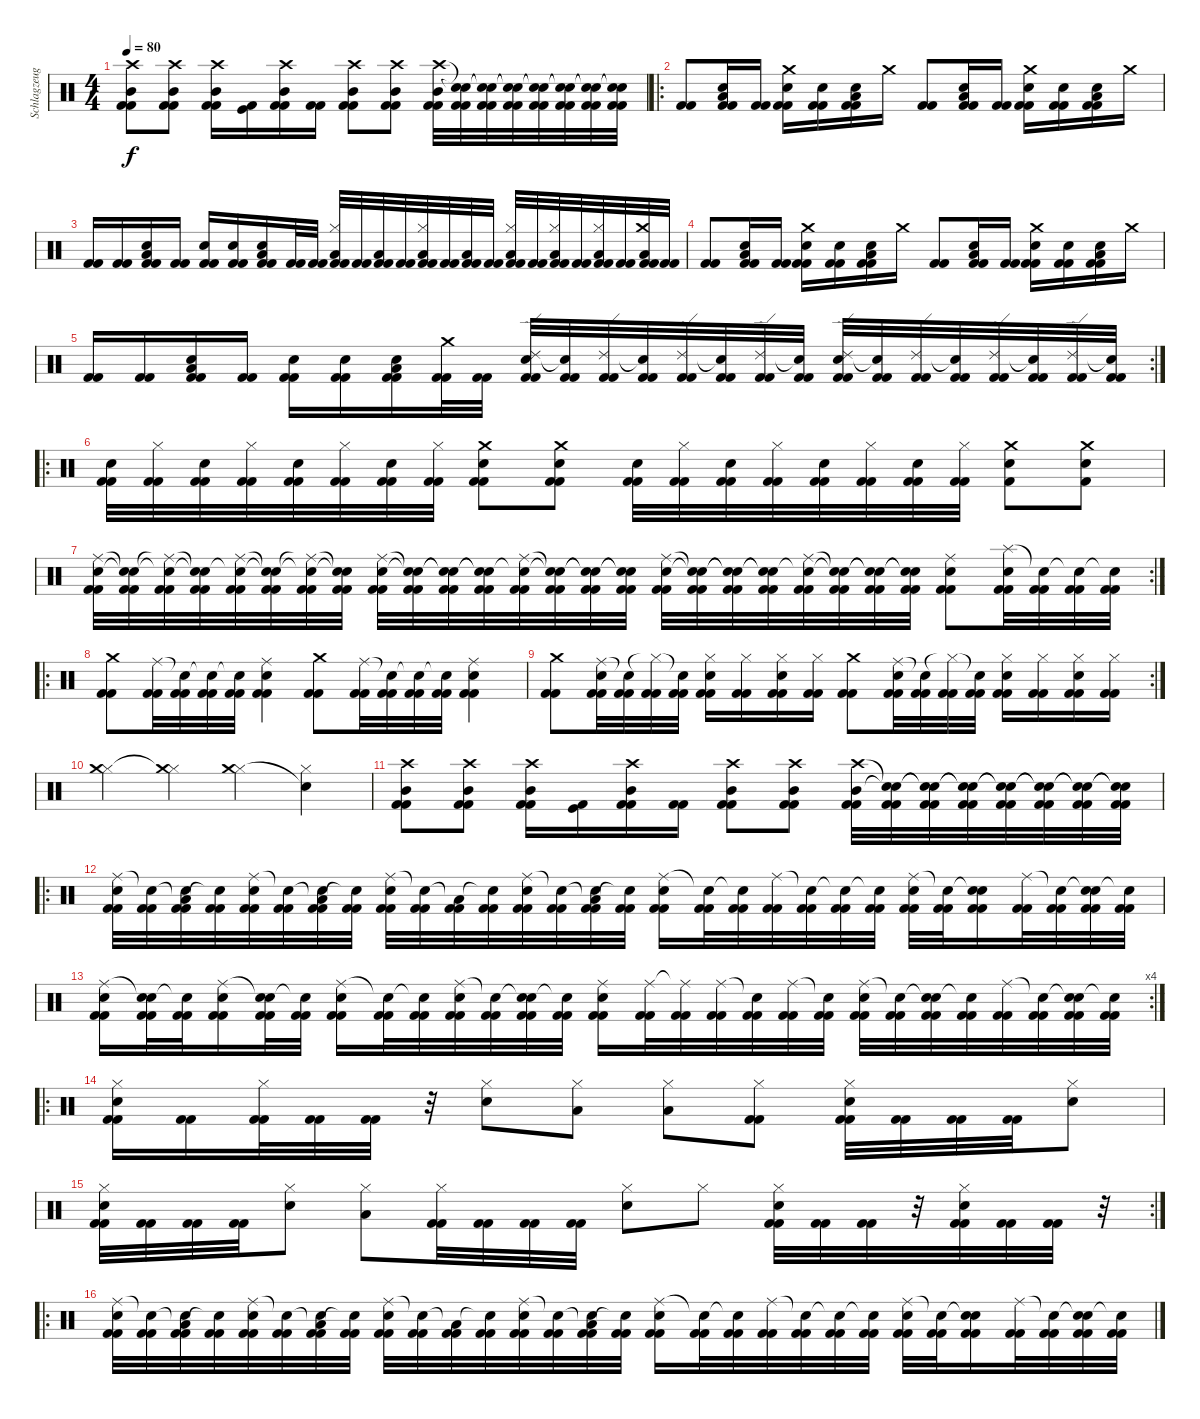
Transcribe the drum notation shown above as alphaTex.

\track ("Schlagzeug" "Schlagzeug") {instrument percussion}
\staff {score}
\articulation defaults
\ts (4 4)
\tempo 80
\clef neutral
\ks c
("Crash high (hit)" "Mid Tom (hit)" "Kick (hit) 2" "Kick (hit) 2").8{dy f} ("Crash high (hit)" "Mid Tom (hit)" "Kick (hit) 2" "Kick (hit) 2").8 ("Crash high (hit)" "Mid Tom (hit)" "Kick (hit) 2" "Kick (hit) 2").16 ("Kick (hit) 2" "Kick (hit)").16 ("Crash high (hit)" "Mid Tom (hit)" "Kick (hit) 2" "Kick (hit) 2").16 ("Kick (hit) 2" "Kick (hit) 2").16 ("Crash high (hit)" "Mid Tom (hit)" "Kick (hit) 2" "Kick (hit) 2").8 ("Crash high (hit)" "Mid Tom (hit)" "Kick (hit) 2" "Kick (hit) 2").8 ("Crash high (hit)" "Mid Tom (hit)" "Kick (hit) 2" "Kick (hit) 2").32 ("Snare (hit)"{t} "Snare (hit)"{t} "Kick (hit) 2" "Kick (hit) 2").32 ("Snare (hit)"{t} "Snare (hit)"{t} "Kick (hit) 2" "Kick (hit) 2").32 ("Snare (hit)"{t} "Snare (hit)"{t} "Kick (hit) 2" "Kick (hit) 2").32 ("Snare (hit)"{t} "Snare (hit)"{t} "Kick (hit) 2" "Kick (hit) 2").32 ("Snare (hit)"{t} "Snare (hit)"{t} "Kick (hit) 2" "Kick (hit) 2").32 ("Snare (hit)"{t} "Snare (hit)"{t} "Kick (hit) 2" "Kick (hit) 2").32 ("Snare (hit)"{t} "Snare (hit)"{t} "Kick (hit) 2" "Kick (hit) 2").32 |
\ro
("Kick (hit) 2" "Kick (hit) 2").8 ("Snare (hit) 2" "Low Tom (hit)" "Kick (hit) 2" "Kick (hit) 2").16 ("Kick (hit) 2" "Kick (hit) 2").16 ("Crash medium (hit)" "Snare (hit) 2" "Kick (hit) 2" "Kick (hit) 2").16 ("Snare (hit) 2" "Kick (hit) 2" "Kick (hit) 2").16 ("Snare (hit) 2" "Low Tom (hit)" "Kick (hit) 2" "Kick (hit) 2").16 "Crash medium (hit)".16 ("Kick (hit) 2" "Kick (hit) 2").8 ("Snare (hit) 2" "Low Tom (hit)" "Kick (hit) 2" "Kick (hit) 2").16 ("Kick (hit) 2" "Kick (hit) 2").16 ("Crash medium (hit)" "Snare (hit) 2" "Kick (hit) 2" "Kick (hit) 2").16 ("Snare (hit) 2" "Kick (hit) 2" "Kick (hit) 2").16 ("Snare (hit) 2" "Low Tom (hit)" "Kick (hit) 2" "Kick (hit) 2").16 "Crash medium (hit)".16 |
("Kick (hit) 2" "Kick (hit) 2").16 ("Kick (hit) 2" "Kick (hit) 2").16 ("Snare (hit) 2" "Low Tom (hit)" "Kick (hit) 2" "Kick (hit) 2").16 ("Kick (hit) 2" "Kick (hit) 2").16 ("Snare (hit) 2" "Kick (hit) 2" "Kick (hit) 2").16 ("Snare (hit) 2" "Kick (hit) 2" "Kick (hit) 2").16 ("Snare (hit) 2" "Low Tom (hit)" "Kick (hit) 2" "Kick (hit) 2").16 ("Kick (hit) 2" "Kick (hit) 2").32 ("Kick (hit) 2" "Kick (hit) 2").32 ("Hi-Hat (closed)" "Low Floor Tom (hit)" "Kick (hit) 2" "Kick (hit) 2").32 ("Kick (hit) 2" "Kick (hit) 2").32 ("Low Floor Tom (hit)" "Kick (hit) 2" "Kick (hit) 2").32 ("Kick (hit) 2" "Kick (hit) 2").32 ("Hi-Hat (closed)" "Low Floor Tom (hit)" "Kick (hit) 2" "Kick (hit) 2").32 ("Kick (hit) 2" "Kick (hit) 2").32 ("Low Floor Tom (hit)" "Kick (hit) 2" "Kick (hit) 2").32 ("Kick (hit) 2" "Kick (hit) 2").32 ("Hi-Hat (closed)" "Low Floor Tom (hit)" "Kick (hit) 2" "Kick (hit) 2").32 ("Kick (hit) 2" "Kick (hit) 2").32 ("Hi-Hat (closed)" "Low Floor Tom (hit)" "Kick (hit) 2" "Kick (hit) 2").32 ("Kick (hit) 2" "Kick (hit) 2").32 ("Hi-Hat (closed)" "Low Floor Tom (hit)" "Kick (hit) 2" "Kick (hit) 2").32 ("Kick (hit) 2" "Kick (hit) 2").32 ("Crash medium (hit)" "Low Floor Tom (hit)" "Kick (hit) 2" "Kick (hit) 2").32 ("Kick (hit) 2" "Kick (hit) 2").32 |
("Kick (hit) 2" "Kick (hit) 2").8 ("Snare (hit) 2" "Low Tom (hit)" "Kick (hit) 2" "Kick (hit) 2").16 ("Kick (hit) 2" "Kick (hit) 2").16 ("Crash medium (hit)" "Snare (hit) 2" "Kick (hit) 2" "Kick (hit) 2").16 ("Snare (hit) 2" "Kick (hit) 2" "Kick (hit) 2").16 ("Snare (hit) 2" "Low Tom (hit)" "Kick (hit) 2" "Kick (hit) 2").16 "Crash medium (hit)".16 ("Kick (hit) 2" "Kick (hit) 2").8 ("Snare (hit) 2" "Low Tom (hit)" "Kick (hit) 2" "Kick (hit) 2").16 ("Kick (hit) 2" "Kick (hit) 2").16 ("Crash medium (hit)" "Snare (hit) 2" "Kick (hit) 2" "Kick (hit) 2").16 ("Snare (hit) 2" "Kick (hit) 2" "Kick (hit) 2").16 ("Snare (hit) 2" "Low Tom (hit)" "Kick (hit) 2" "Kick (hit) 2").16 "Crash medium (hit)".16 |
\rc 2
("Kick (hit) 2" "Kick (hit) 2").16 ("Kick (hit) 2" "Kick (hit) 2").16 ("Snare (hit) 2" "Low Tom (hit)" "Kick (hit) 2" "Kick (hit) 2").16 ("Kick (hit) 2" "Kick (hit) 2").16 ("Snare (hit) 2" "Kick (hit) 2" "Kick (hit) 2").16 ("Snare (hit) 2" "Kick (hit) 2" "Kick (hit) 2").16 ("Snare (hit) 2" "Low Tom (hit)" "Kick (hit) 2" "Kick (hit) 2").16 ("Crash medium (hit)" "Kick (hit) 2" "Kick (hit) 2").32 ("Kick (hit) 2" "Kick (hit) 2").32 ("Ride (edge) 2" "Snare (hit) 2" "Kick (hit) 2" "Kick (hit) 2").32 ("Snare (hit)"{t} "Kick (hit) 2" "Kick (hit) 2").32 ("Ride (edge) 2" "Kick (hit) 2" "Kick (hit) 2").32 ("Snare (hit)"{t} "Kick (hit) 2" "Kick (hit) 2").32 ("Ride (edge) 2" "Kick (hit) 2" "Kick (hit) 2").32 ("Snare (hit)"{t} "Kick (hit) 2" "Kick (hit) 2").32 ("Ride (edge) 2" "Kick (hit) 2" "Kick (hit) 2").32 ("Snare (hit)"{t} "Kick (hit) 2" "Kick (hit) 2").32 ("Ride (edge) 2" "Snare (hit) 2" "Kick (hit) 2" "Kick (hit) 2").32 ("Snare (hit)"{t} "Kick (hit) 2" "Kick (hit) 2").32 ("Ride (edge) 2" "Kick (hit) 2" "Kick (hit) 2").32 ("Snare (hit)"{t} "Kick (hit) 2" "Kick (hit) 2").32 ("Ride (edge) 2" "Kick (hit) 2" "Kick (hit) 2").32 ("Snare (hit)"{t} "Kick (hit) 2" "Kick (hit) 2").32 ("Ride (edge) 2" "Kick (hit) 2" "Kick (hit) 2").32 ("Snare (hit)"{t} "Kick (hit) 2" "Kick (hit) 2").32 |
\ro
("Snare (hit) 2" "Kick (hit) 2" "Kick (hit) 2").32 ("Hi-Hat (closed)" "Kick (hit) 2" "Kick (hit) 2").32 ("Snare (hit) 2" "Kick (hit) 2" "Kick (hit) 2").32 ("Hi-Hat (closed)" "Kick (hit) 2" "Kick (hit) 2").32 ("Snare (hit) 2" "Kick (hit) 2" "Kick (hit) 2").32 ("Hi-Hat (closed)" "Kick (hit) 2" "Kick (hit) 2").32 ("Snare (hit) 2" "Kick (hit) 2" "Kick (hit) 2").32 ("Hi-Hat (closed)" "Kick (hit) 2" "Kick (hit) 2").32 ("Crash medium (hit)" "Snare (hit) 2" "Kick (hit) 2" "Kick (hit) 2").8 ("Crash medium (hit)" "Snare (hit) 2" "Kick (hit) 2" "Kick (hit) 2").8 ("Snare (hit) 2" "Kick (hit) 2" "Kick (hit) 2").32 ("Hi-Hat (closed)" "Kick (hit) 2" "Kick (hit) 2").32 ("Snare (hit) 2" "Kick (hit) 2" "Kick (hit) 2").32 ("Hi-Hat (closed)" "Kick (hit) 2" "Kick (hit) 2").32 ("Snare (hit) 2" "Kick (hit) 2" "Kick (hit) 2").32 ("Hi-Hat (closed)" "Kick (hit) 2" "Kick (hit) 2").32 ("Snare (hit) 2" "Kick (hit) 2" "Kick (hit) 2").32 ("Hi-Hat (closed)" "Kick (hit) 2" "Kick (hit) 2").32 ("Crash medium (hit)" "Snare (hit) 2" "Kick (hit) 2").8 ("Crash medium (hit)" "Snare (hit) 2" "Kick (hit) 2").8 |
\rc 2
("Ride (middle)" "Snare (hit) 2" "Kick (hit) 2" "Kick (hit) 2").32 ("Snare (hit)"{t} "Snare (hit)"{t} "Kick (hit) 2" "Kick (hit) 2").32 ("Ride (middle)"{t} "Snare (hit)"{t} "Kick (hit) 2" "Kick (hit) 2").32 ("Snare (hit)"{t} "Snare (hit)"{t} "Kick (hit) 2" "Kick (hit) 2").32 ("Ride (middle)" "Snare (hit)"{t} "Kick (hit) 2" "Kick (hit) 2").32 ("Snare (hit)"{t} "Snare (hit)"{t} "Kick (hit) 2" "Kick (hit) 2").32 ("Ride (middle)"{t} "Snare (hit)"{t} "Kick (hit) 2" "Kick (hit) 2").32 ("Snare (hit)"{t} "Snare (hit)"{t} "Kick (hit) 2" "Kick (hit) 2").32 ("Ride (middle)" "Snare (hit) 2" "Kick (hit) 2" "Kick (hit) 2").32 ("Snare (hit)"{t} "Snare (hit)"{t} "Kick (hit) 2" "Kick (hit) 2").32 ("Snare (hit)"{t} "Snare (hit)"{t} "Kick (hit) 2" "Kick (hit) 2").32 ("Snare (hit)"{t} "Snare (hit)"{t} "Kick (hit) 2" "Kick (hit) 2").32 ("Ride (middle)" "Snare (hit)"{t} "Kick (hit) 2" "Kick (hit) 2").32 ("Snare (hit)"{t} "Snare (hit)"{t} "Kick (hit) 2" "Kick (hit) 2").32 ("Snare (hit)"{t} "Snare (hit)"{t} "Kick (hit) 2" "Kick (hit) 2").32 ("Snare (hit)"{t} "Snare (hit)"{t} "Kick (hit) 2" "Kick (hit) 2").32 ("Ride (middle)" "Snare (hit) 2" "Kick (hit) 2" "Kick (hit) 2").32 ("Snare (hit)"{t} "Snare (hit)"{t} "Kick (hit) 2" "Kick (hit) 2").32 ("Snare (hit)"{t} "Snare (hit)"{t} "Kick (hit) 2" "Kick (hit) 2").32 ("Snare (hit)"{t} "Snare (hit)"{t} "Kick (hit) 2" "Kick (hit) 2").32 ("Ride (middle)" "Snare (hit)"{t} "Kick (hit) 2" "Kick (hit) 2").32 ("Snare (hit)"{t} "Snare (hit)"{t} "Kick (hit) 2" "Kick (hit) 2").32 ("Snare (hit)"{t} "Snare (hit)"{t} "Kick (hit) 2" "Kick (hit) 2").32 ("Snare (hit)"{t} "Snare (hit)"{t} "Kick (hit) 2" "Kick (hit) 2").32 ("Ride (middle)" "Snare (hit) 2" "Kick (hit) 2" "Kick (hit) 2").8 ("Splash (hit)" "Snare (hit) 2" "Kick (hit) 2" "Kick (hit) 2").32 ("Snare (hit)"{t} "Kick (hit) 2" "Kick (hit) 2").32 ("Snare (hit)"{t} "Kick (hit) 2" "Kick (hit) 2").32 ("Snare (hit)"{t} "Kick (hit) 2" "Kick (hit) 2").32 |
\ro
("Crash medium (hit)" "Kick (hit) 2" "Kick (hit) 2").8 ("Ride (middle)" "Kick (hit) 2" "Kick (hit) 2").32 ("Snare (hit)"{t} "Kick (hit) 2" "Kick (hit) 2").32 ("Snare (hit)"{t} "Kick (hit) 2" "Kick (hit) 2").32 ("Snare (hit)"{t} "Kick (hit) 2" "Kick (hit) 2").32 ("Ride (middle)" "Snare (hit) 2" "Kick (hit) 2" "Kick (hit) 2").4 ("Crash medium (hit)" "Kick (hit) 2" "Kick (hit) 2").8 ("Ride (middle)" "Kick (hit) 2" "Kick (hit) 2").32 ("Snare (hit)"{t} "Kick (hit) 2" "Kick (hit) 2").32 ("Snare (hit)"{t} "Kick (hit) 2" "Kick (hit) 2").32 ("Snare (hit)"{t} "Kick (hit) 2" "Kick (hit) 2").32 ("Ride (middle)" "Snare (hit) 2" "Kick (hit) 2" "Kick (hit) 2").4 |
\rc 2
("Crash medium (hit)" "Kick (hit) 2" "Kick (hit) 2").8 ("Ride (middle)" "Snare (hit) 2" "Kick (hit) 2" "Kick (hit) 2").32 ("Snare (hit)"{t} "Kick (hit) 2" "Kick (hit) 2").32 ("Hi-Hat (closed)"{t} "Kick (hit) 2" "Kick (hit) 2").32 ("Snare (hit)"{t} "Kick (hit) 2" "Kick (hit) 2").32 ("Hi-Hat (closed)" "Snare (hit) 2" "Kick (hit) 2" "Kick (hit) 2").16 ("Hi-Hat (closed)" "Kick (hit) 2" "Kick (hit) 2").16 ("Hi-Hat (closed)" "Snare (hit) 2" "Kick (hit) 2" "Kick (hit) 2").16 ("Hi-Hat (closed)" "Kick (hit) 2" "Kick (hit) 2").16 ("Crash medium (hit)" "Kick (hit) 2" "Kick (hit) 2").8 ("Ride (middle)" "Snare (hit) 2" "Kick (hit) 2" "Kick (hit) 2").32 ("Snare (hit)"{t} "Kick (hit) 2" "Kick (hit) 2").32 ("Hi-Hat (closed)"{t} "Kick (hit) 2" "Kick (hit) 2").32 ("Snare (hit)"{t} "Kick (hit) 2" "Kick (hit) 2").32 ("Hi-Hat (closed)" "Snare (hit) 2" "Kick (hit) 2" "Kick (hit) 2").16 ("Hi-Hat (closed)" "Kick (hit) 2" "Kick (hit) 2").16 ("Hi-Hat (closed)" "Snare (hit) 2" "Kick (hit) 2" "Kick (hit) 2").16 ("Hi-Hat (closed)" "Kick (hit) 2" "Kick (hit) 2").16 |
("Hi-Hat (closed)" "Crash medium (hit)").4 ("Hi-Hat (closed)" "Crash medium (hit)"{t}).4 ("Hi-Hat (closed)" "Crash medium (hit)").4 ("Hi-Hat (closed)" "Snare (hit)"{t}).4 |
("Crash high (hit)" "Mid Tom (hit)" "Kick (hit) 2" "Kick (hit) 2").8 ("Crash high (hit)" "Mid Tom (hit)" "Kick (hit) 2" "Kick (hit) 2").8 ("Crash high (hit)" "Mid Tom (hit)" "Kick (hit) 2" "Kick (hit) 2").16 ("Kick (hit) 2" "Kick (hit)").16 ("Crash high (hit)" "Mid Tom (hit)" "Kick (hit) 2" "Kick (hit) 2").16 ("Kick (hit) 2" "Kick (hit) 2").16 ("Crash high (hit)" "Mid Tom (hit)" "Kick (hit) 2" "Kick (hit) 2").8 ("Crash high (hit)" "Mid Tom (hit)" "Kick (hit) 2" "Kick (hit) 2").8 ("Crash high (hit)" "Mid Tom (hit)" "Kick (hit) 2" "Kick (hit) 2").32 ("Snare (hit)"{t} "Snare (hit)"{t} "Kick (hit) 2" "Kick (hit) 2").32 ("Snare (hit)"{t} "Snare (hit)"{t} "Kick (hit) 2" "Kick (hit) 2").32 ("Snare (hit)"{t} "Snare (hit)"{t} "Kick (hit) 2" "Kick (hit) 2").32 ("Snare (hit)"{t} "Snare (hit)"{t} "Kick (hit) 2" "Kick (hit) 2").32 ("Snare (hit)"{t} "Snare (hit)"{t} "Kick (hit) 2" "Kick (hit) 2").32 ("Snare (hit)"{t} "Snare (hit)"{t} "Kick (hit) 2" "Kick (hit) 2").32 ("Snare (hit)"{t} "Snare (hit)"{t} "Kick (hit) 2" "Kick (hit) 2").32 |
\ro
("Ride (middle)" "Snare (hit) 2" "Kick (hit) 2" "Kick (hit) 2").32 ("Snare (hit)"{t} "Kick (hit) 2" "Kick (hit) 2").32 ("Low Floor Tom (hit)"{t} "Snare (hit) 2" "Kick (hit) 2" "Kick (hit) 2").32 ("Snare (hit)"{t} "Kick (hit) 2" "Kick (hit) 2").32 ("Ride (middle)" "Snare (hit) 2" "Kick (hit) 2" "Kick (hit) 2").32 ("Snare (hit)"{t} "Kick (hit) 2" "Kick (hit) 2").32 ("Low Floor Tom (hit)"{t} "Snare (hit) 2" "Kick (hit) 2" "Kick (hit) 2").32 ("Snare (hit)"{t} "Kick (hit) 2" "Kick (hit) 2").32 ("Ride (middle)" "Snare (hit) 2" "Kick (hit) 2" "Kick (hit) 2").32 ("Snare (hit)"{t} "Kick (hit) 2" "Kick (hit) 2").32 ("Low Floor Tom (hit)"{t} "Kick (hit) 2" "Kick (hit) 2").32 ("Snare (hit)"{t} "Kick (hit) 2" "Kick (hit) 2").32 ("Ride (middle)" "Snare (hit) 2" "Kick (hit) 2" "Kick (hit) 2").32 ("Snare (hit)"{t} "Kick (hit) 2" "Kick (hit) 2").32 ("Low Floor Tom (hit)"{t} "Snare (hit) 2" "Kick (hit) 2" "Kick (hit) 2").32 ("Snare (hit)"{t} "Kick (hit) 2" "Kick (hit) 2").32 ("Ride (middle)" "Snare (hit) 2" "Kick (hit) 2" "Kick (hit) 2").16 ("Snare (hit)"{t} "Kick (hit) 2" "Kick (hit) 2").32 ("Snare (hit)"{t} "Kick (hit) 2" "Kick (hit) 2").32 ("Ride (middle)" "Kick (hit) 2" "Kick (hit) 2").32 ("Snare (hit)"{t} "Kick (hit) 2" "Kick (hit) 2").32 ("Snare (hit)"{t} "Kick (hit) 2" "Kick (hit) 2").32 ("Snare (hit)"{t} "Kick (hit) 2" "Kick (hit) 2").32 ("Ride (middle)" "Snare (hit) 2" "Kick (hit) 2" "Kick (hit) 2").32 ("Snare (hit)"{t} "Kick (hit) 2" "Kick (hit) 2").32 ("Snare (hit)"{t} "Snare (hit) 2" "Kick (hit) 2" "Kick (hit) 2").16 ("Ride (middle)" "Kick (hit) 2" "Kick (hit) 2").32 ("Snare (hit)"{t} "Kick (hit) 2" "Kick (hit) 2").32 ("Snare (hit)"{t} "Snare (hit) 2" "Kick (hit) 2" "Kick (hit) 2").32 ("Snare (hit)"{t} "Kick (hit) 2" "Kick (hit) 2").32 |
\rc 4
("Ride (middle)" "Snare (hit) 2" "Kick (hit) 2" "Kick (hit) 2").16 ("Snare (hit)"{t} "Snare (hit) 2" "Kick (hit) 2" "Kick (hit) 2").32 ("Snare (hit)"{t} "Kick (hit) 2" "Kick (hit) 2").32 ("Ride (middle)" "Snare (hit) 2" "Kick (hit) 2" "Kick (hit) 2").16 ("Snare (hit)"{t} "Snare (hit) 2" "Kick (hit) 2" "Kick (hit) 2").32 ("Snare (hit)"{t} "Kick (hit) 2" "Kick (hit) 2").32 ("Ride (middle)" "Snare (hit) 2" "Kick (hit) 2" "Kick (hit) 2").16 ("Snare (hit)"{t} "Kick (hit) 2" "Kick (hit) 2").32 ("Snare (hit)"{t} "Kick (hit) 2" "Kick (hit) 2").32 ("Ride (middle)" "Snare (hit) 2" "Kick (hit) 2" "Kick (hit) 2").32 ("Snare (hit)"{t} "Kick (hit) 2" "Kick (hit) 2").32 ("Snare (hit)"{t} "Snare (hit) 2" "Kick (hit) 2" "Kick (hit) 2").32 ("Snare (hit)"{t} "Kick (hit) 2" "Kick (hit) 2").32 ("Ride (middle)" "Snare (hit) 2" "Kick (hit) 2" "Kick (hit) 2").16 ("Ride (middle)" "Kick (hit) 2" "Kick (hit) 2").32 ("Ride (middle)"{t} "Kick (hit) 2" "Kick (hit) 2").32 ("Ride (middle)" "Kick (hit) 2" "Kick (hit) 2").32 ("Snare (hit)"{t} "Kick (hit) 2" "Kick (hit) 2").32 ("Ride (middle)" "Kick (hit) 2" "Kick (hit) 2").32 ("Snare (hit)"{t} "Kick (hit) 2" "Kick (hit) 2").32 ("Ride (middle)" "Snare (hit) 2" "Kick (hit) 2" "Kick (hit) 2").32 ("Snare (hit)"{t} "Kick (hit) 2" "Kick (hit) 2").32 ("Snare (hit)"{t} "Snare (hit) 2" "Kick (hit) 2" "Kick (hit) 2").32 ("Snare (hit)"{t} "Kick (hit) 2" "Kick (hit) 2").32 ("Ride (middle)" "Kick (hit) 2" "Kick (hit) 2").32 ("Snare (hit)"{t} "Kick (hit) 2" "Kick (hit) 2").32 ("Snare (hit)"{t} "Snare (hit) 2" "Kick (hit) 2" "Kick (hit) 2").32 ("Snare (hit)"{t} "Kick (hit) 2" "Kick (hit) 2").32 |
\ro
("Hi-Hat (closed)" "Snare (hit) 2" "Kick (hit) 2" "Kick (hit) 2").16 ("Kick (hit) 2" "Kick (hit) 2").16 ("Hi-Hat (closed)" "Kick (hit) 2" "Kick (hit) 2").32 ("Kick (hit) 2" "Kick (hit) 2").32 ("Kick (hit) 2" "Kick (hit) 2").32 r.32 ("Hi-Hat (closed)" "Snare (hit) 2").8 ("Hi-Hat (closed)" "Low Floor Tom (hit)").8 ("Hi-Hat (closed)" "Low Floor Tom (hit)").8 ("Hi-Hat (closed)" "Kick (hit) 2" "Kick (hit) 2").8 ("Hi-Hat (closed)" "Snare (hit) 2" "Kick (hit) 2" "Kick (hit) 2").32 ("Kick (hit) 2" "Kick (hit) 2").32 ("Kick (hit) 2" "Kick (hit) 2").32 ("Kick (hit) 2" "Kick (hit) 2").32 ("Hi-Hat (closed)" "Snare (hit) 2").8 |
\rc 2
("Hi-Hat (closed)" "Snare (hit) 2" "Kick (hit) 2" "Kick (hit) 2").32 ("Kick (hit) 2" "Kick (hit) 2").32 ("Kick (hit) 2" "Kick (hit) 2").32 ("Kick (hit) 2" "Kick (hit) 2").32 ("Hi-Hat (closed)" "Snare (hit) 2").8 ("Hi-Hat (closed)" "Low Floor Tom (hit)").8 ("Hi-Hat (closed)" "Kick (hit) 2" "Kick (hit) 2").32 ("Kick (hit) 2" "Kick (hit) 2").32 ("Kick (hit) 2" "Kick (hit) 2").32 ("Kick (hit) 2" "Kick (hit) 2").32 ("Hi-Hat (closed)" "Snare (hit) 2").8 "Hi-Hat (closed)".8 ("Hi-Hat (closed)" "Snare (hit) 2" "Kick (hit) 2" "Kick (hit) 2").32 ("Kick (hit) 2" "Kick (hit) 2").32 ("Kick (hit) 2" "Kick (hit) 2").32 r.32 ("Hi-Hat (closed)" "Snare (hit) 2" "Kick (hit) 2" "Kick (hit) 2").32 ("Kick (hit) 2" "Kick (hit) 2").32 ("Kick (hit) 2" "Kick (hit) 2").32 r.32 |
\ro
("Ride (middle)" "Snare (hit) 2" "Kick (hit) 2" "Kick (hit) 2").32 ("Snare (hit)"{t} "Kick (hit) 2" "Kick (hit) 2").32 ("Low Floor Tom (hit)"{t} "Snare (hit) 2" "Kick (hit) 2" "Kick (hit) 2").32 ("Snare (hit)"{t} "Kick (hit) 2" "Kick (hit) 2").32 ("Ride (middle)" "Snare (hit) 2" "Kick (hit) 2" "Kick (hit) 2").32 ("Snare (hit)"{t} "Kick (hit) 2" "Kick (hit) 2").32 ("Low Floor Tom (hit)"{t} "Snare (hit) 2" "Kick (hit) 2" "Kick (hit) 2").32 ("Snare (hit)"{t} "Kick (hit) 2" "Kick (hit) 2").32 ("Ride (middle)" "Snare (hit) 2" "Kick (hit) 2" "Kick (hit) 2").32 ("Snare (hit)"{t} "Kick (hit) 2" "Kick (hit) 2").32 ("Low Floor Tom (hit)"{t} "Kick (hit) 2" "Kick (hit) 2").32 ("Snare (hit)"{t} "Kick (hit) 2" "Kick (hit) 2").32 ("Ride (middle)" "Snare (hit) 2" "Kick (hit) 2" "Kick (hit) 2").32 ("Snare (hit)"{t} "Kick (hit) 2" "Kick (hit) 2").32 ("Low Floor Tom (hit)"{t} "Snare (hit) 2" "Kick (hit) 2" "Kick (hit) 2").32 ("Snare (hit)"{t} "Kick (hit) 2" "Kick (hit) 2").32 ("Ride (middle)" "Snare (hit) 2" "Kick (hit) 2" "Kick (hit) 2").16 ("Snare (hit)"{t} "Kick (hit) 2" "Kick (hit) 2").32 ("Snare (hit)"{t} "Kick (hit) 2" "Kick (hit) 2").32 ("Ride (middle)" "Kick (hit) 2" "Kick (hit) 2").32 ("Snare (hit)"{t} "Kick (hit) 2" "Kick (hit) 2").32 ("Snare (hit)"{t} "Kick (hit) 2" "Kick (hit) 2").32 ("Snare (hit)"{t} "Kick (hit) 2" "Kick (hit) 2").32 ("Ride (middle)" "Snare (hit) 2" "Kick (hit) 2" "Kick (hit) 2").32 ("Snare (hit)"{t} "Kick (hit) 2" "Kick (hit) 2").32 ("Snare (hit)"{t} "Snare (hit) 2" "Kick (hit) 2" "Kick (hit) 2").16 ("Ride (middle)" "Kick (hit) 2" "Kick (hit) 2").32 ("Snare (hit)"{t} "Kick (hit) 2" "Kick (hit) 2").32 ("Snare (hit)"{t} "Snare (hit) 2" "Kick (hit) 2" "Kick (hit) 2").32 ("Snare (hit)"{t} "Kick (hit) 2" "Kick (hit) 2").32
